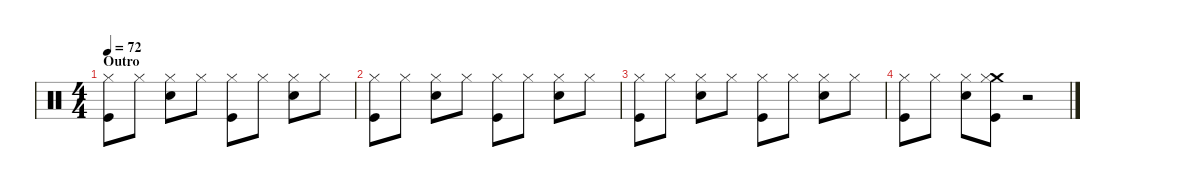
\defaultSystemsLayout 4
\hideDynamics
\bracketExtendMode nobrackets
\singleTrackTrackNamePolicy hidden
\multiTrackTrackNamePolicy hidden
\otherSystemsTrackNameOrientation horizontal
\track ("Drumkit" "drm.") {instrument percussion}
\staff {score}
\articulation defaults
\ts (4 4)
\beaming (8 2 2 2 2)
\section ("" "Outro")
\tempo 72
\clef neutral
\ks c
("Hi-Hat (closed)" "Kick (hit)").8{dy f beam Down} "Hi-Hat (closed)".8{beam Down} ("Hi-Hat (closed)" "Snare (hit) 2").8{beam Down} "Hi-Hat (closed)".8{beam Down} ("Hi-Hat (closed)" "Kick (hit)").8{beam Down} "Hi-Hat (closed)".8{beam Down} ("Hi-Hat (closed)" "Snare (hit) 2").8{beam Down} "Hi-Hat (closed)".8{beam Down} |
("Hi-Hat (closed)" "Kick (hit)").8{beam Down} "Hi-Hat (closed)".8{beam Down} ("Hi-Hat (closed)" "Snare (hit) 2").8{beam Down} "Hi-Hat (closed)".8{beam Down} ("Hi-Hat (closed)" "Kick (hit)").8{beam Down} "Hi-Hat (closed)".8{beam Down} ("Hi-Hat (closed)" "Snare (hit) 2").8{beam Down} "Hi-Hat (closed)".8{beam Down} |
("Hi-Hat (closed)" "Kick (hit)").8{beam Down} "Hi-Hat (closed)".8{beam Down} ("Hi-Hat (closed)" "Snare (hit) 2").8{beam Down} "Hi-Hat (closed)".8{beam Down} ("Hi-Hat (closed)" "Kick (hit)").8{beam Down} "Hi-Hat (closed)".8{beam Down} ("Hi-Hat (closed)" "Snare (hit) 2").8{beam Down} "Hi-Hat (closed)".8{beam Down} |
("Hi-Hat (closed)" "Kick (hit)").8{beam Down} "Hi-Hat (closed)".8{beam Down} ("Hi-Hat (closed)" "Snare (hit) 2").8{beam Down} ("Crash medium (hit)" "Hi-Hat (closed)" "Kick (hit)").8{beam Down} r.2{beam Down}
